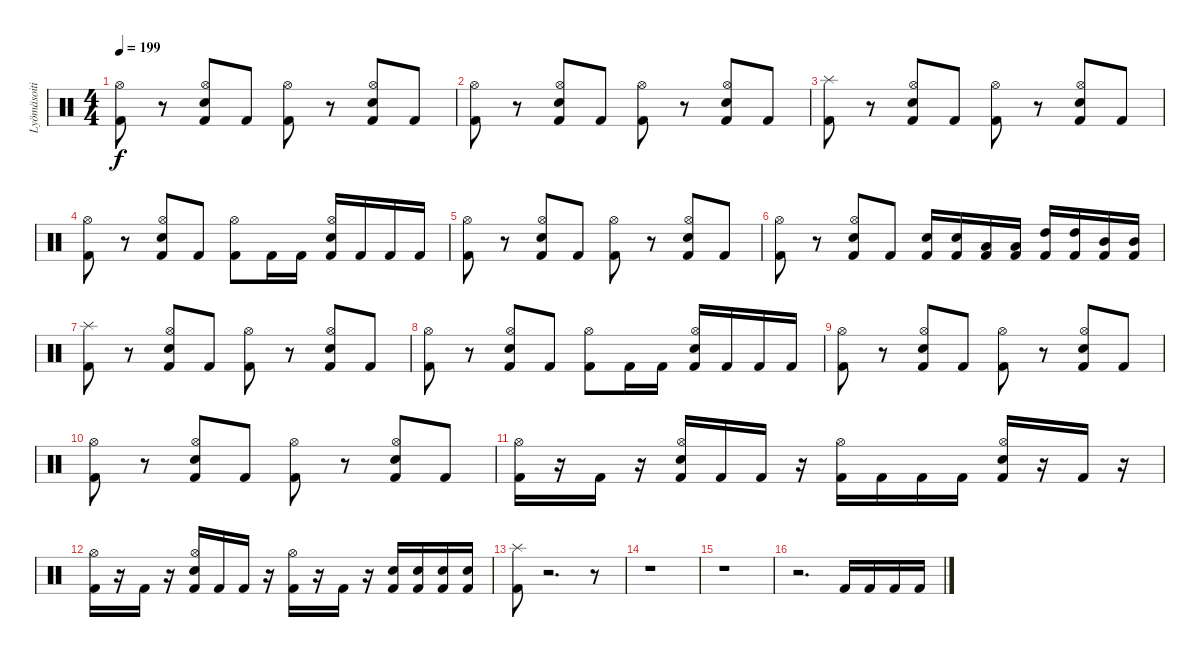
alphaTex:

\track ("Lyömäsoitin" "Lyömäsoiti") {instrument percussion}
\staff {score}
\articulation defaults
\ts (4 4)
\tempo 199
\clef neutral
\ks c
("Kick (hit) 2" "Hi-Hat (open)").8{dy f} r.8 ("Kick (hit) 2" "Hi-Hat (open)" "Snare (hit) 2").8 "Kick (hit) 2".8 ("Kick (hit) 2" "Hi-Hat (open)").8 r.8 ("Kick (hit) 2" "Hi-Hat (open)" "Snare (hit) 2").8 "Kick (hit) 2".8 |
("Kick (hit) 2" "Hi-Hat (open)").8 r.8 ("Kick (hit) 2" "Hi-Hat (open)" "Snare (hit) 2").8 "Kick (hit) 2".8 ("Kick (hit) 2" "Hi-Hat (open)").8 r.8 ("Kick (hit) 2" "Hi-Hat (open)" "Snare (hit) 2").8 "Kick (hit) 2".8 |
("Kick (hit) 2" "Splash (hit)").8 r.8 ("Kick (hit) 2" "Hi-Hat (open)" "Snare (hit) 2").8 "Kick (hit) 2".8 ("Kick (hit) 2" "Hi-Hat (open)").8 r.8 ("Kick (hit) 2" "Hi-Hat (open)" "Snare (hit) 2").8 "Kick (hit) 2".8 |
("Kick (hit) 2" "Hi-Hat (open)").8 r.8 ("Kick (hit) 2" "Hi-Hat (open)" "Snare (hit) 2").8 "Kick (hit) 2".8 ("Kick (hit) 2" "Hi-Hat (open)").8 "Kick (hit) 2".16 "Kick (hit) 2".16 ("Kick (hit) 2" "Hi-Hat (open)" "Snare (hit) 2").16 "Kick (hit) 2".16 "Kick (hit) 2".16 "Kick (hit) 2".16 |
("Kick (hit) 2" "Hi-Hat (open)").8 r.8 ("Kick (hit) 2" "Hi-Hat (open)" "Snare (hit) 2").8 "Kick (hit) 2".8 ("Kick (hit) 2" "Hi-Hat (open)").8 r.8 ("Kick (hit) 2" "Hi-Hat (open)" "Snare (hit) 2").8 "Kick (hit) 2".8 |
("Kick (hit) 2" "Hi-Hat (open)").8 r.8 ("Kick (hit) 2" "Hi-Hat (open)" "Snare (hit) 2").8 "Kick (hit) 2".8 ("Kick (hit) 2" "Snare (hit) 2").16 ("Kick (hit) 2" "Snare (hit) 2").16 ("Kick (hit) 2" "Low Tom (hit)").16 ("Kick (hit) 2" "Low Tom (hit)").16 ("Kick (hit) 2" "High Tom (hit)").16 ("Kick (hit) 2" "High Tom (hit)").16 ("Kick (hit) 2" "Mid Tom (hit)").16 ("Kick (hit) 2" "Mid Tom (hit)").16 |
("Kick (hit) 2" "Splash (hit)").8 r.8 ("Kick (hit) 2" "Hi-Hat (open)" "Snare (hit) 2").8 "Kick (hit) 2".8 ("Kick (hit) 2" "Hi-Hat (open)").8 r.8 ("Kick (hit) 2" "Hi-Hat (open)" "Snare (hit) 2").8 "Kick (hit) 2".8 |
("Kick (hit) 2" "Hi-Hat (open)").8 r.8 ("Kick (hit) 2" "Hi-Hat (open)" "Snare (hit) 2").8 "Kick (hit) 2".8 ("Kick (hit) 2" "Hi-Hat (open)").8 "Kick (hit) 2".16 "Kick (hit) 2".16 ("Kick (hit) 2" "Hi-Hat (open)" "Snare (hit) 2").16 "Kick (hit) 2".16 "Kick (hit) 2".16 "Kick (hit) 2".16 |
("Kick (hit) 2" "Hi-Hat (open)").8 r.8 ("Kick (hit) 2" "Hi-Hat (open)" "Snare (hit) 2").8 "Kick (hit) 2".8 ("Kick (hit) 2" "Hi-Hat (open)").8 r.8 ("Kick (hit) 2" "Hi-Hat (open)" "Snare (hit) 2").8 "Kick (hit) 2".8 |
("Kick (hit) 2" "Hi-Hat (open)").8 r.8 ("Kick (hit) 2" "Hi-Hat (open)" "Snare (hit) 2").8 "Kick (hit) 2".8 ("Kick (hit) 2" "Hi-Hat (open)").8 r.8 ("Kick (hit) 2" "Hi-Hat (open)" "Snare (hit) 2").8 "Kick (hit) 2".8 |
("Kick (hit) 2" "Hi-Hat (open)").16 r.16 "Kick (hit) 2".16 r.16 ("Kick (hit) 2" "Snare (hit) 2" "Hi-Hat (open)").16 "Kick (hit) 2".16 "Kick (hit) 2".16 r.16 ("Kick (hit) 2" "Hi-Hat (open)").16 "Kick (hit) 2".16 "Kick (hit) 2".16 "Kick (hit) 2".16 ("Kick (hit) 2" "Snare (hit) 2" "Hi-Hat (open)").16 r.16 "Kick (hit) 2".16 r.16 |
("Kick (hit) 2" "Hi-Hat (open)").16 r.16 "Kick (hit) 2".16 r.16 ("Kick (hit) 2" "Snare (hit) 2" "Hi-Hat (open)").16 "Kick (hit) 2".16 "Kick (hit) 2".16 r.16 ("Kick (hit) 2" "Hi-Hat (open)").16 r.16 "Kick (hit) 2".16 r.16 ("Kick (hit) 2" "Snare (hit) 2").16 ("Kick (hit) 2" "Snare (hit) 2").16 ("Kick (hit) 2" "Snare (hit) 2").16 ("Kick (hit) 2" "Snare (hit) 2").16 |
("Kick (hit) 2" "Splash (hit)").8 r.2{d} r.8 |
r.1 |
r.1 |
r.2{d} "Kick (hit) 2".16 "Kick (hit) 2".16 "Kick (hit) 2".16 "Kick (hit) 2".16
